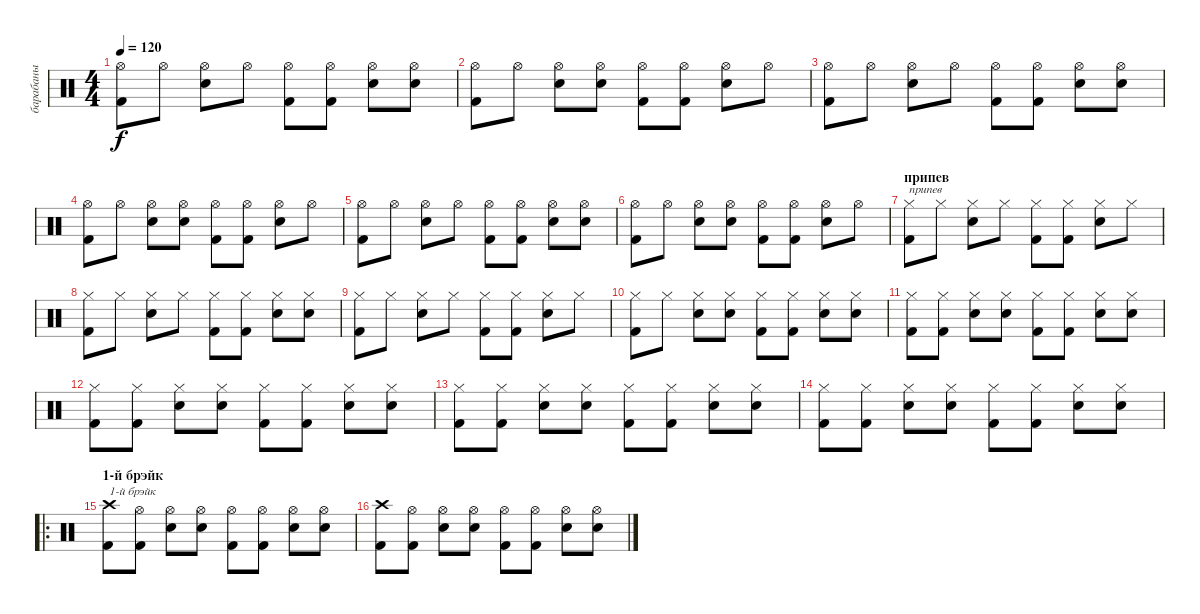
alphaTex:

\track ("барабаны" "барабаны") {instrument percussion}
\staff {score}
\articulation defaults
\ts (4 4)
\tempo 120
\clef neutral
\ks c
("Hi-Hat (open)" "Kick (hit) 2").8{dy f} "Hi-Hat (open)".8 ("Hi-Hat (open)" "Snare (hit) 2").8 "Hi-Hat (open)".8 ("Hi-Hat (open)" "Kick (hit) 2").8 ("Hi-Hat (open)" "Kick (hit) 2").8 ("Hi-Hat (open)" "Snare (hit) 2").8 ("Hi-Hat (open)" "Snare (hit) 2").8 |
("Hi-Hat (open)" "Kick (hit) 2").8 "Hi-Hat (open)".8 ("Hi-Hat (open)" "Snare (hit) 2").8 ("Hi-Hat (open)" "Snare (hit) 2").8 ("Hi-Hat (open)" "Kick (hit) 2").8 ("Hi-Hat (open)" "Kick (hit) 2").8 ("Hi-Hat (open)" "Snare (hit) 2").8 "Hi-Hat (open)".8 |
("Hi-Hat (open)" "Kick (hit) 2").8 "Hi-Hat (open)".8 ("Hi-Hat (open)" "Snare (hit) 2").8 "Hi-Hat (open)".8 ("Hi-Hat (open)" "Kick (hit) 2").8 ("Hi-Hat (open)" "Kick (hit) 2").8 ("Hi-Hat (open)" "Snare (hit) 2").8 ("Hi-Hat (open)" "Snare (hit) 2").8 |
("Hi-Hat (open)" "Kick (hit) 2").8 "Hi-Hat (open)".8 ("Hi-Hat (open)" "Snare (hit) 2").8 ("Hi-Hat (open)" "Snare (hit) 2").8 ("Hi-Hat (open)" "Kick (hit) 2").8 ("Hi-Hat (open)" "Kick (hit) 2").8 ("Hi-Hat (open)" "Snare (hit) 2").8 "Hi-Hat (open)".8 |
("Hi-Hat (open)" "Kick (hit) 2").8 "Hi-Hat (open)".8 ("Hi-Hat (open)" "Snare (hit) 2").8 "Hi-Hat (open)".8 ("Hi-Hat (open)" "Kick (hit) 2").8 ("Hi-Hat (open)" "Kick (hit) 2").8 ("Hi-Hat (open)" "Snare (hit) 2").8 ("Hi-Hat (open)" "Snare (hit) 2").8 |
("Hi-Hat (open)" "Kick (hit) 2").8 "Hi-Hat (open)".8 ("Hi-Hat (open)" "Snare (hit) 2").8 ("Hi-Hat (open)" "Snare (hit) 2").8 ("Hi-Hat (open)" "Kick (hit) 2").8 ("Hi-Hat (open)" "Kick (hit) 2").8 ("Hi-Hat (open)" "Snare (hit) 2").8 "Hi-Hat (open)".8 |
\section ("" "припев")
("Hi-Hat (closed)" "Kick (hit) 2").8{txt "припев"} "Hi-Hat (closed)".8 ("Hi-Hat (closed)" "Snare (hit) 2").8 "Hi-Hat (closed)".8 ("Hi-Hat (closed)" "Kick (hit) 2").8 ("Hi-Hat (closed)" "Kick (hit) 2").8 ("Hi-Hat (closed)" "Snare (hit) 2").8 "Hi-Hat (closed)".8 |
("Hi-Hat (closed)" "Kick (hit) 2").8 "Hi-Hat (closed)".8 ("Hi-Hat (closed)" "Snare (hit) 2").8 "Hi-Hat (closed)".8 ("Hi-Hat (closed)" "Kick (hit) 2").8 ("Hi-Hat (closed)" "Kick (hit) 2").8 ("Hi-Hat (closed)" "Snare (hit) 2").8 ("Hi-Hat (closed)" "Snare (hit) 2").8 |
("Hi-Hat (closed)" "Kick (hit) 2").8 "Hi-Hat (closed)".8 ("Hi-Hat (closed)" "Snare (hit) 2").8 "Hi-Hat (closed)".8 ("Hi-Hat (closed)" "Kick (hit) 2").8 ("Hi-Hat (closed)" "Kick (hit) 2").8 ("Hi-Hat (closed)" "Snare (hit) 2").8 "Hi-Hat (closed)".8 |
("Hi-Hat (closed)" "Kick (hit) 2").8 "Hi-Hat (closed)".8 ("Hi-Hat (closed)" "Snare (hit) 2").8 ("Hi-Hat (closed)" "Snare (hit) 2").8 ("Hi-Hat (closed)" "Kick (hit) 2").8 ("Hi-Hat (closed)" "Kick (hit) 2").8 ("Hi-Hat (closed)" "Snare (hit) 2").8 ("Hi-Hat (closed)" "Snare (hit) 2").8 |
("Hi-Hat (closed)" "Kick (hit) 2").8 ("Hi-Hat (closed)" "Kick (hit) 2").8 ("Hi-Hat (closed)" "Snare (hit) 2").8 ("Hi-Hat (closed)" "Snare (hit) 2").8 ("Hi-Hat (closed)" "Kick (hit) 2").8 ("Hi-Hat (closed)" "Kick (hit) 2").8 ("Hi-Hat (closed)" "Snare (hit) 2").8 ("Hi-Hat (closed)" "Snare (hit) 2").8 |
("Hi-Hat (closed)" "Kick (hit) 2").8 ("Hi-Hat (closed)" "Kick (hit) 2").8 ("Hi-Hat (closed)" "Snare (hit) 2").8 ("Hi-Hat (closed)" "Snare (hit) 2").8 ("Hi-Hat (closed)" "Kick (hit) 2").8 ("Hi-Hat (closed)" "Kick (hit) 2").8 ("Hi-Hat (closed)" "Snare (hit) 2").8 ("Hi-Hat (closed)" "Snare (hit) 2").8 |
("Hi-Hat (closed)" "Kick (hit) 2").8 ("Hi-Hat (closed)" "Kick (hit) 2").8 ("Hi-Hat (closed)" "Snare (hit) 2").8 ("Hi-Hat (closed)" "Snare (hit) 2").8 ("Hi-Hat (closed)" "Kick (hit) 2").8 ("Hi-Hat (closed)" "Kick (hit) 2").8 ("Hi-Hat (closed)" "Snare (hit) 2").8 ("Hi-Hat (closed)" "Snare (hit) 2").8 |
("Hi-Hat (closed)" "Kick (hit) 2").8 ("Hi-Hat (closed)" "Kick (hit) 2").8 ("Hi-Hat (closed)" "Snare (hit) 2").8 ("Hi-Hat (closed)" "Snare (hit) 2").8 ("Hi-Hat (closed)" "Kick (hit) 2").8 ("Hi-Hat (closed)" "Kick (hit) 2").8 ("Hi-Hat (closed)" "Snare (hit) 2").8 ("Hi-Hat (closed)" "Snare (hit) 2").8 |
\ro
\section ("" "1-й брэйк")
("Crash high (hit)" "Kick (hit) 2").8{txt "1-й брэйк"} ("Hi-Hat (open)" "Kick (hit) 2").8 ("Hi-Hat (open)" "Snare (hit) 2").8 ("Hi-Hat (open)" "Snare (hit) 2").8 ("Hi-Hat (open)" "Kick (hit) 2").8 ("Hi-Hat (open)" "Kick (hit) 2").8 ("Hi-Hat (open)" "Snare (hit) 2").8 ("Hi-Hat (open)" "Snare (hit) 2").8 |
("Crash high (hit)" "Kick (hit) 2").8 ("Hi-Hat (open)" "Kick (hit) 2").8 ("Hi-Hat (open)" "Snare (hit) 2").8 ("Hi-Hat (open)" "Snare (hit) 2").8 ("Hi-Hat (open)" "Kick (hit) 2").8 ("Hi-Hat (open)" "Kick (hit) 2").8 ("Hi-Hat (open)" "Snare (hit) 2").8 ("Hi-Hat (open)" "Snare (hit) 2").8
